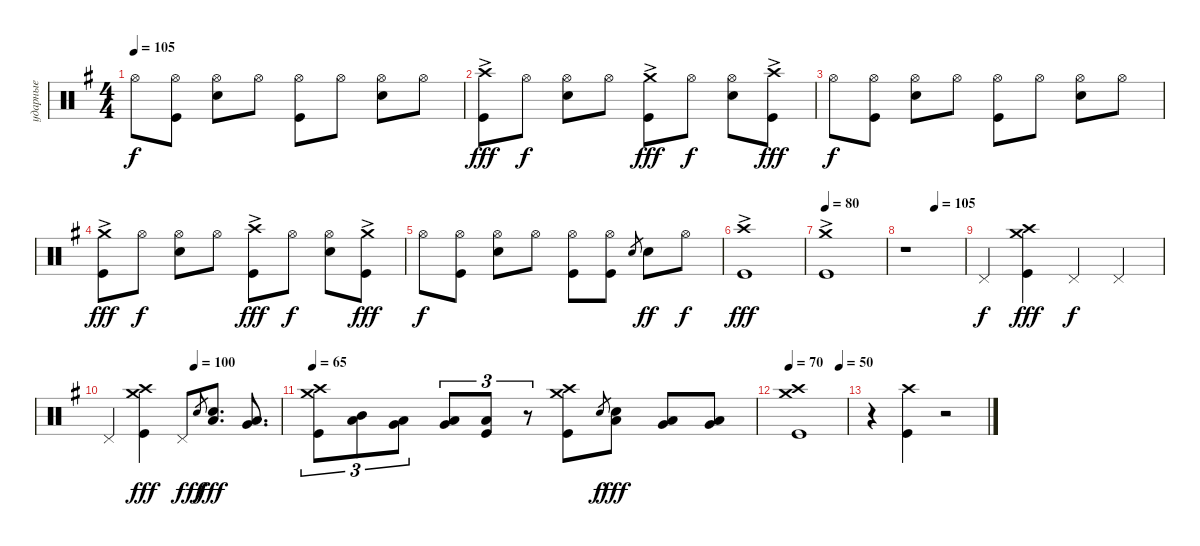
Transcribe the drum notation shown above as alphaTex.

\track ("ударные" "ударные") {instrument percussion}
\staff {score}
\articulation defaults
\ts (4 4)
\tempo 105
\clef neutral
\ks eminor "Hi-Hat (open)".8{dy f}
("Hi-Hat (open)" "Kick (hit)").8 ("Snare (hit) 2" "Hi-Hat (open)").8 "Hi-Hat (open)".8 ("Kick (hit)" "Hi-Hat (open)").8 "Hi-Hat (open)".8 ("Snare (hit) 2" "Hi-Hat (open)").8 "Hi-Hat (open)".8 |
("Kick (hit)" "Crash high (hit)"{ac}).8{dy fff} "Hi-Hat (open)".8{dy f} ("Snare (hit) 2" "Hi-Hat (open)").8 "Hi-Hat (open)".8 ("Kick (hit)" "Crash medium (hit)"{ac}).8{dy fff} "Hi-Hat (open)".8{dy f} ("Snare (hit) 2" "Hi-Hat (open)").8 ("Kick (hit)" "Crash high (hit)"{ac}).8{dy fff} |
"Hi-Hat (open)".8{dy f} ("Hi-Hat (open)" "Kick (hit)").8 ("Snare (hit) 2" "Hi-Hat (open)").8 "Hi-Hat (open)".8 ("Kick (hit)" "Hi-Hat (open)").8 "Hi-Hat (open)".8 ("Snare (hit) 2" "Hi-Hat (open)").8 "Hi-Hat (open)".8 |
("Kick (hit)" "Crash medium (hit)"{ac}).8{dy fff} "Hi-Hat (open)".8{dy f} ("Snare (hit) 2" "Hi-Hat (open)").8 "Hi-Hat (open)".8 ("Kick (hit)" "Crash high (hit)"{ac}).8{dy fff} "Hi-Hat (open)".8{dy f} ("Snare (hit) 2" "Hi-Hat (open)").8 ("Kick (hit)" "Crash medium (hit)"{ac}).8{dy fff} |
"Hi-Hat (open)".8{dy f} ("Hi-Hat (open)" "Kick (hit)").8 ("Snare (hit) 2" "Hi-Hat (open)").8 "Hi-Hat (open)".8 ("Kick (hit)" "Hi-Hat (open)").8 ("Hi-Hat (open)" "Kick (hit)").8 "Snare (hit) 2".8{gr} "Snare (hit) 2".8{dy ff} "Hi-Hat (open)".8{dy f} |
("Kick (hit)" "Crash high (hit)"{ac}).1{dy fff} |
\tempo 80
("Kick (hit)" "Crash medium (hit)"{ac}).1 |
\tempo (105 0.5)
r.1 |
"Pedal Hi-Hat (hit)".4{dy f} ("Kick (hit)" "Crash high (hit)" "Crash medium (hit)").4{dy fff} "Pedal Hi-Hat (hit)".4{dy f} "Pedal Hi-Hat (hit)".4 |
\tempo (100 0.5)
"Pedal Hi-Hat (hit)".4 ("Kick (hit)" "Crash high (hit)" "Crash medium (hit)").4{dy fff} "Pedal Hi-Hat (hit)".8{dy f} "Snare (hit) 2".8{gr dy ff} ("Snare (hit) 2" "Low Tom (hit)").8{d dy fff} ("Very Low Tom (hit)" "Low Floor Tom (hit)").8{d} |
\tempo 65
("Kick (hit)" "Crash high (hit)" "Crash medium (hit)").8{tu (3 2)} ("Mid Tom (hit)" "Low Tom (hit)").8{tu (3 2)} ("Low Tom (hit)" "Very Low Tom (hit)").8{tu (3 2)} ("Very Low Tom (hit)" "Low Floor Tom (hit)").8{tu (3 2)} ("Low Floor Tom (hit)" "Kick (hit)").8{tu (3 2)} r.8{tu (3 2)} ("Crash high (hit)" "Crash medium (hit)" "Kick (hit)").8 "Snare (hit) 2".8{gr dy f} ("Snare (hit) 2" "Low Tom (hit)").8{dy fff} ("Low Tom (hit)" "Very Low Tom (hit)").8 ("Very Low Tom (hit)" "Low Floor Tom (hit)").8 |
\tempo 70
\tempo (50 0.875)
("Kick (hit)" "Crash high (hit)" "Crash medium (hit)").1 |
r.4 ("Kick (hit)" "Crash high (hit)").4 r.2
